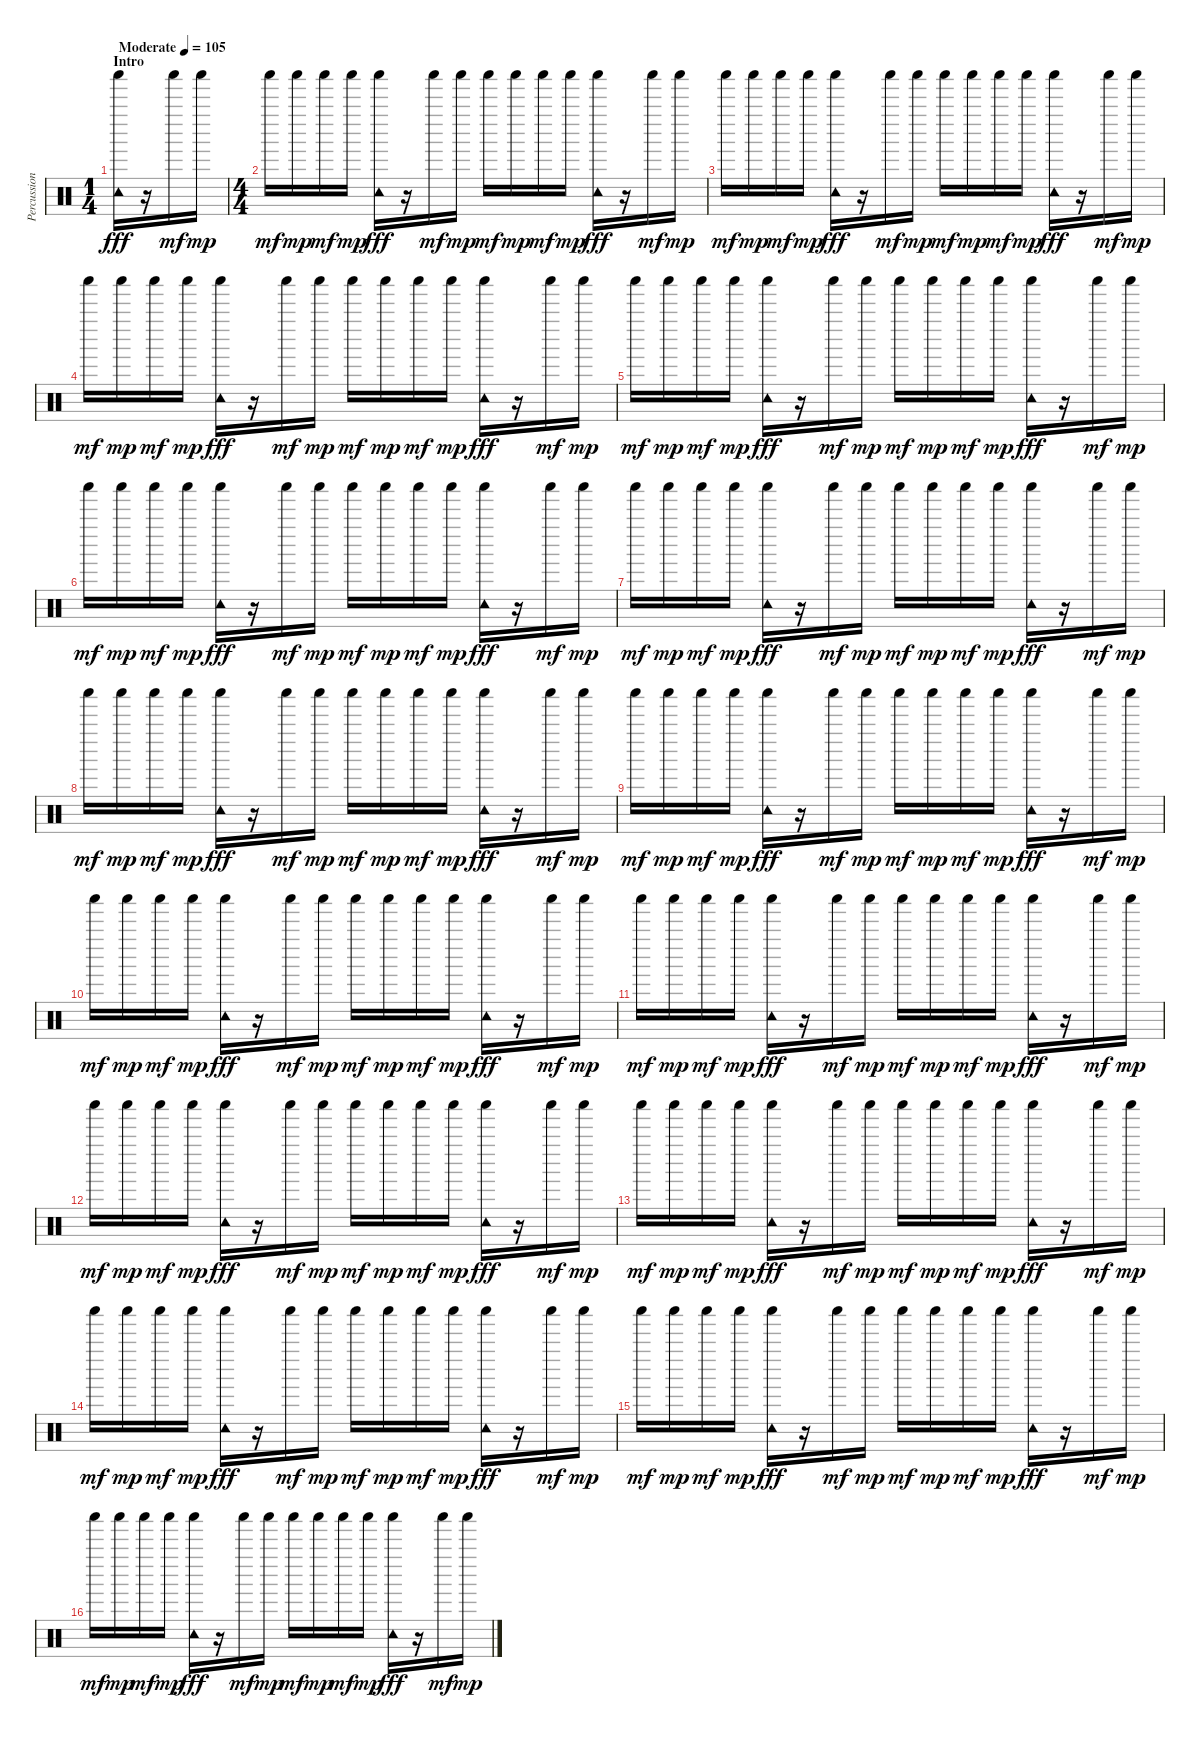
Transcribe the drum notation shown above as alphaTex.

\track ("Percussion" "Percussion") {instrument percussion}
\staff {score}
\articulation defaults
\ts (1 4)
\section ("" "Intro")
\tempo (105 "Moderate")
\clef neutral
\ks c
("Shaker (hit)" "Tambourine (hit)").16{dy fff balance 14} r.16 "Shaker (hit)".16{dy mf} "Shaker (hit)".16{dy mp} |
\ts (4 4)
"Shaker (hit)".16{dy mf} "Shaker (hit)".16{dy mp} "Shaker (hit)".16{dy mf} "Shaker (hit)".16{dy mp} ("Shaker (hit)" "Tambourine (hit)").16{dy fff} r.16 "Shaker (hit)".16{dy mf} "Shaker (hit)".16{dy mp} "Shaker (hit)".16{dy mf} "Shaker (hit)".16{dy mp} "Shaker (hit)".16{dy mf} "Shaker (hit)".16{dy mp} ("Shaker (hit)" "Tambourine (hit)").16{dy fff} r.16 "Shaker (hit)".16{dy mf} "Shaker (hit)".16{dy mp} |
"Shaker (hit)".16{dy mf} "Shaker (hit)".16{dy mp} "Shaker (hit)".16{dy mf} "Shaker (hit)".16{dy mp} ("Shaker (hit)" "Tambourine (hit)").16{dy fff} r.16 "Shaker (hit)".16{dy mf} "Shaker (hit)".16{dy mp} "Shaker (hit)".16{dy mf} "Shaker (hit)".16{dy mp} "Shaker (hit)".16{dy mf} "Shaker (hit)".16{dy mp} ("Shaker (hit)" "Tambourine (hit)").16{dy fff} r.16 "Shaker (hit)".16{dy mf} "Shaker (hit)".16{dy mp} |
"Shaker (hit)".16{dy mf} "Shaker (hit)".16{dy mp} "Shaker (hit)".16{dy mf} "Shaker (hit)".16{dy mp} ("Shaker (hit)" "Tambourine (hit)").16{dy fff} r.16 "Shaker (hit)".16{dy mf} "Shaker (hit)".16{dy mp} "Shaker (hit)".16{dy mf} "Shaker (hit)".16{dy mp} "Shaker (hit)".16{dy mf} "Shaker (hit)".16{dy mp} ("Shaker (hit)" "Tambourine (hit)").16{dy fff} r.16 "Shaker (hit)".16{dy mf} "Shaker (hit)".16{dy mp} |
"Shaker (hit)".16{dy mf} "Shaker (hit)".16{dy mp} "Shaker (hit)".16{dy mf} "Shaker (hit)".16{dy mp} ("Shaker (hit)" "Tambourine (hit)").16{dy fff} r.16 "Shaker (hit)".16{dy mf} "Shaker (hit)".16{dy mp} "Shaker (hit)".16{dy mf} "Shaker (hit)".16{dy mp} "Shaker (hit)".16{dy mf} "Shaker (hit)".16{dy mp} ("Shaker (hit)" "Tambourine (hit)").16{dy fff} r.16 "Shaker (hit)".16{dy mf} "Shaker (hit)".16{dy mp} |
"Shaker (hit)".16{dy mf} "Shaker (hit)".16{dy mp} "Shaker (hit)".16{dy mf} "Shaker (hit)".16{dy mp} ("Shaker (hit)" "Tambourine (hit)").16{dy fff} r.16 "Shaker (hit)".16{dy mf} "Shaker (hit)".16{dy mp} "Shaker (hit)".16{dy mf} "Shaker (hit)".16{dy mp} "Shaker (hit)".16{dy mf} "Shaker (hit)".16{dy mp} ("Shaker (hit)" "Tambourine (hit)").16{dy fff} r.16 "Shaker (hit)".16{dy mf} "Shaker (hit)".16{dy mp} |
"Shaker (hit)".16{dy mf} "Shaker (hit)".16{dy mp} "Shaker (hit)".16{dy mf} "Shaker (hit)".16{dy mp} ("Shaker (hit)" "Tambourine (hit)").16{dy fff} r.16 "Shaker (hit)".16{dy mf} "Shaker (hit)".16{dy mp} "Shaker (hit)".16{dy mf} "Shaker (hit)".16{dy mp} "Shaker (hit)".16{dy mf} "Shaker (hit)".16{dy mp} ("Shaker (hit)" "Tambourine (hit)").16{dy fff} r.16 "Shaker (hit)".16{dy mf} "Shaker (hit)".16{dy mp} |
"Shaker (hit)".16{dy mf} "Shaker (hit)".16{dy mp} "Shaker (hit)".16{dy mf} "Shaker (hit)".16{dy mp} ("Shaker (hit)" "Tambourine (hit)").16{dy fff} r.16 "Shaker (hit)".16{dy mf} "Shaker (hit)".16{dy mp} "Shaker (hit)".16{dy mf} "Shaker (hit)".16{dy mp} "Shaker (hit)".16{dy mf} "Shaker (hit)".16{dy mp} ("Shaker (hit)" "Tambourine (hit)").16{dy fff} r.16 "Shaker (hit)".16{dy mf} "Shaker (hit)".16{dy mp} |
"Shaker (hit)".16{dy mf} "Shaker (hit)".16{dy mp} "Shaker (hit)".16{dy mf} "Shaker (hit)".16{dy mp} ("Shaker (hit)" "Tambourine (hit)").16{dy fff} r.16 "Shaker (hit)".16{dy mf} "Shaker (hit)".16{dy mp} "Shaker (hit)".16{dy mf} "Shaker (hit)".16{dy mp} "Shaker (hit)".16{dy mf} "Shaker (hit)".16{dy mp} ("Shaker (hit)" "Tambourine (hit)").16{dy fff} r.16 "Shaker (hit)".16{dy mf} "Shaker (hit)".16{dy mp} |
"Shaker (hit)".16{dy mf} "Shaker (hit)".16{dy mp} "Shaker (hit)".16{dy mf} "Shaker (hit)".16{dy mp} ("Shaker (hit)" "Tambourine (hit)").16{dy fff} r.16 "Shaker (hit)".16{dy mf} "Shaker (hit)".16{dy mp} "Shaker (hit)".16{dy mf} "Shaker (hit)".16{dy mp} "Shaker (hit)".16{dy mf} "Shaker (hit)".16{dy mp} ("Shaker (hit)" "Tambourine (hit)").16{dy fff} r.16 "Shaker (hit)".16{dy mf} "Shaker (hit)".16{dy mp} |
"Shaker (hit)".16{dy mf} "Shaker (hit)".16{dy mp} "Shaker (hit)".16{dy mf} "Shaker (hit)".16{dy mp} ("Shaker (hit)" "Tambourine (hit)").16{dy fff} r.16 "Shaker (hit)".16{dy mf} "Shaker (hit)".16{dy mp} "Shaker (hit)".16{dy mf} "Shaker (hit)".16{dy mp} "Shaker (hit)".16{dy mf} "Shaker (hit)".16{dy mp} ("Shaker (hit)" "Tambourine (hit)").16{dy fff} r.16 "Shaker (hit)".16{dy mf} "Shaker (hit)".16{dy mp} |
"Shaker (hit)".16{dy mf} "Shaker (hit)".16{dy mp} "Shaker (hit)".16{dy mf} "Shaker (hit)".16{dy mp} ("Shaker (hit)" "Tambourine (hit)").16{dy fff} r.16 "Shaker (hit)".16{dy mf} "Shaker (hit)".16{dy mp} "Shaker (hit)".16{dy mf} "Shaker (hit)".16{dy mp} "Shaker (hit)".16{dy mf} "Shaker (hit)".16{dy mp} ("Shaker (hit)" "Tambourine (hit)").16{dy fff} r.16 "Shaker (hit)".16{dy mf} "Shaker (hit)".16{dy mp} |
"Shaker (hit)".16{dy mf} "Shaker (hit)".16{dy mp} "Shaker (hit)".16{dy mf} "Shaker (hit)".16{dy mp} ("Shaker (hit)" "Tambourine (hit)").16{dy fff} r.16 "Shaker (hit)".16{dy mf} "Shaker (hit)".16{dy mp} "Shaker (hit)".16{dy mf} "Shaker (hit)".16{dy mp} "Shaker (hit)".16{dy mf} "Shaker (hit)".16{dy mp} ("Shaker (hit)" "Tambourine (hit)").16{dy fff} r.16 "Shaker (hit)".16{dy mf} "Shaker (hit)".16{dy mp} |
"Shaker (hit)".16{dy mf} "Shaker (hit)".16{dy mp} "Shaker (hit)".16{dy mf} "Shaker (hit)".16{dy mp} ("Shaker (hit)" "Tambourine (hit)").16{dy fff} r.16 "Shaker (hit)".16{dy mf} "Shaker (hit)".16{dy mp} "Shaker (hit)".16{dy mf} "Shaker (hit)".16{dy mp} "Shaker (hit)".16{dy mf} "Shaker (hit)".16{dy mp} ("Shaker (hit)" "Tambourine (hit)").16{dy fff} r.16 "Shaker (hit)".16{dy mf} "Shaker (hit)".16{dy mp} |
"Shaker (hit)".16{dy mf} "Shaker (hit)".16{dy mp} "Shaker (hit)".16{dy mf} "Shaker (hit)".16{dy mp} ("Shaker (hit)" "Tambourine (hit)").16{dy fff} r.16 "Shaker (hit)".16{dy mf} "Shaker (hit)".16{dy mp} "Shaker (hit)".16{dy mf} "Shaker (hit)".16{dy mp} "Shaker (hit)".16{dy mf} "Shaker (hit)".16{dy mp} ("Shaker (hit)" "Tambourine (hit)").16{dy fff} r.16 "Shaker (hit)".16{dy mf} "Shaker (hit)".16{dy mp} |
"Shaker (hit)".16{dy mf} "Shaker (hit)".16{dy mp} "Shaker (hit)".16{dy mf} "Shaker (hit)".16{dy mp} ("Shaker (hit)" "Tambourine (hit)").16{dy fff} r.16 "Shaker (hit)".16{dy mf} "Shaker (hit)".16{dy mp} "Shaker (hit)".16{dy mf} "Shaker (hit)".16{dy mp} "Shaker (hit)".16{dy mf} "Shaker (hit)".16{dy mp} ("Shaker (hit)" "Tambourine (hit)").16{dy fff} r.16 "Shaker (hit)".16{dy mf} "Shaker (hit)".16{dy mp}
